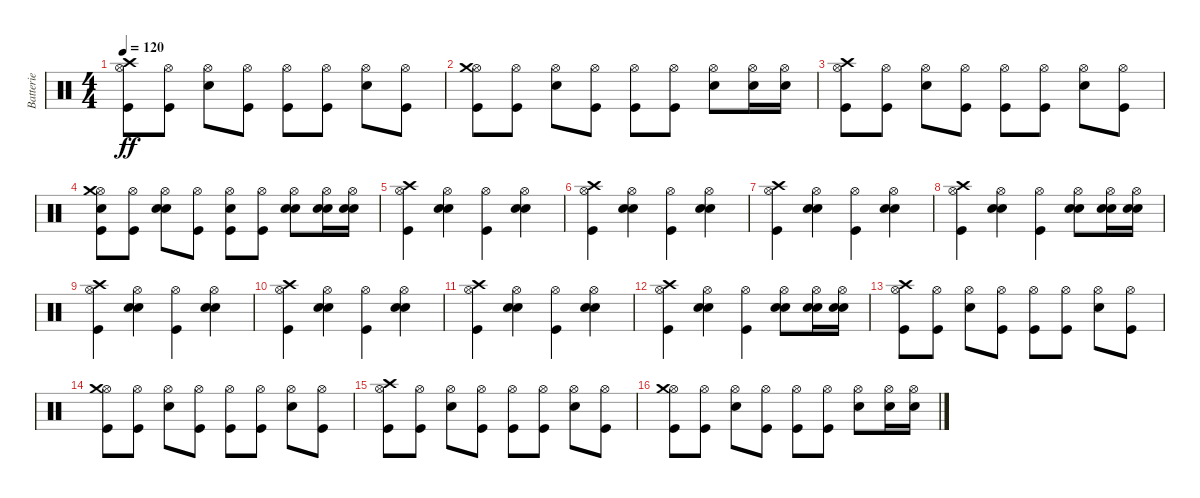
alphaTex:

\track ("Batterie" "Batterie") {instrument percussion}
\staff {score}
\articulation defaults
\ts (4 4)
\tempo 120
\clef neutral
\ks c
("Kick (hit)" "Hi-Hat (open)" "Crash high (hit)").8{dy ff} ("Kick (hit)" "Hi-Hat (open)").8 ("Electric Snare (hit)" "Hi-Hat (open)").8 ("Kick (hit)" "Hi-Hat (open)").8 ("Kick (hit)" "Hi-Hat (open)").8 ("Kick (hit)" "Hi-Hat (open)").8 ("Electric Snare (hit)" "Hi-Hat (open)").8 ("Kick (hit)" "Hi-Hat (open)").8 |
("Kick (hit)" "Hi-Hat (open)" "Crash medium (hit)").8 ("Kick (hit)" "Hi-Hat (open)").8 ("Electric Snare (hit)" "Hi-Hat (open)").8 ("Kick (hit)" "Hi-Hat (open)").8 ("Kick (hit)" "Hi-Hat (open)").8 ("Kick (hit)" "Hi-Hat (open)").8 ("Electric Snare (hit)" "Hi-Hat (open)").8 ("Electric Snare (hit)" "Hi-Hat (open)").16 ("Electric Snare (hit)" "Hi-Hat (open)").16 |
("Kick (hit)" "Hi-Hat (open)" "Crash high (hit)").8 ("Kick (hit)" "Hi-Hat (open)").8 ("Electric Snare (hit)" "Hi-Hat (open)").8 ("Kick (hit)" "Hi-Hat (open)").8 ("Kick (hit)" "Hi-Hat (open)").8 ("Kick (hit)" "Hi-Hat (open)").8 ("Electric Snare (hit)" "Hi-Hat (open)").8 ("Kick (hit)" "Hi-Hat (open)").8 |
("Kick (hit)" "Hi-Hat (open)" "Crash medium (hit)" "Electric Snare (hit)").8 ("Kick (hit)" "Hi-Hat (open)").8 ("Electric Snare (hit)" "Hi-Hat (open)" "Electric Snare (hit)").8 ("Kick (hit)" "Hi-Hat (open)").8 ("Kick (hit)" "Hi-Hat (open)" "Electric Snare (hit)").8 ("Kick (hit)" "Hi-Hat (open)").8 ("Electric Snare (hit)" "Hi-Hat (open)" "Electric Snare (hit)").8 ("Electric Snare (hit)" "Hi-Hat (open)" "Electric Snare (hit)").16 ("Electric Snare (hit)" "Hi-Hat (open)" "Electric Snare (hit)").16 |
("Kick (hit)" "Hi-Hat (open)" "Crash high (hit)").4 ("Electric Snare (hit)" "Electric Snare (hit)" "Hi-Hat (open)").4 ("Kick (hit)" "Hi-Hat (open)").4 ("Electric Snare (hit)" "Electric Snare (hit)" "Hi-Hat (open)").4 |
("Kick (hit)" "Hi-Hat (open)" "Crash high (hit)").4 ("Electric Snare (hit)" "Electric Snare (hit)" "Hi-Hat (open)").4 ("Kick (hit)" "Hi-Hat (open)").4 ("Electric Snare (hit)" "Electric Snare (hit)" "Hi-Hat (open)").4 |
("Kick (hit)" "Hi-Hat (open)" "Crash high (hit)").4 ("Electric Snare (hit)" "Electric Snare (hit)" "Hi-Hat (open)").4 ("Kick (hit)" "Hi-Hat (open)").4 ("Electric Snare (hit)" "Electric Snare (hit)" "Hi-Hat (open)").4 |
("Kick (hit)" "Hi-Hat (open)" "Crash high (hit)").4 ("Electric Snare (hit)" "Electric Snare (hit)" "Hi-Hat (open)").4 ("Kick (hit)" "Hi-Hat (open)").4 ("Electric Snare (hit)" "Electric Snare (hit)" "Hi-Hat (open)").8 ("Electric Snare (hit)" "Electric Snare (hit)" "Hi-Hat (open)").16 ("Electric Snare (hit)" "Electric Snare (hit)" "Hi-Hat (open)").16 |
("Kick (hit)" "Hi-Hat (open)" "Crash high (hit)").4 ("Electric Snare (hit)" "Electric Snare (hit)" "Hi-Hat (open)").4 ("Kick (hit)" "Hi-Hat (open)").4 ("Electric Snare (hit)" "Electric Snare (hit)" "Hi-Hat (open)").4 |
("Kick (hit)" "Hi-Hat (open)" "Crash high (hit)").4 ("Electric Snare (hit)" "Electric Snare (hit)" "Hi-Hat (open)").4 ("Kick (hit)" "Hi-Hat (open)").4 ("Electric Snare (hit)" "Electric Snare (hit)" "Hi-Hat (open)").4 |
("Kick (hit)" "Hi-Hat (open)" "Crash high (hit)").4 ("Electric Snare (hit)" "Electric Snare (hit)" "Hi-Hat (open)").4 ("Kick (hit)" "Hi-Hat (open)").4 ("Electric Snare (hit)" "Electric Snare (hit)" "Hi-Hat (open)").4 |
("Kick (hit)" "Hi-Hat (open)" "Crash high (hit)").4 ("Electric Snare (hit)" "Electric Snare (hit)" "Hi-Hat (open)").4 ("Kick (hit)" "Hi-Hat (open)").4 ("Electric Snare (hit)" "Electric Snare (hit)" "Hi-Hat (open)").8 ("Electric Snare (hit)" "Electric Snare (hit)" "Hi-Hat (open)").16 ("Electric Snare (hit)" "Electric Snare (hit)" "Hi-Hat (open)").16 |
("Kick (hit)" "Hi-Hat (open)" "Crash high (hit)").8 ("Kick (hit)" "Hi-Hat (open)").8 ("Electric Snare (hit)" "Hi-Hat (open)").8 ("Kick (hit)" "Hi-Hat (open)").8 ("Kick (hit)" "Hi-Hat (open)").8 ("Kick (hit)" "Hi-Hat (open)").8 ("Electric Snare (hit)" "Hi-Hat (open)").8 ("Kick (hit)" "Hi-Hat (open)").8 |
("Kick (hit)" "Hi-Hat (open)" "Crash medium (hit)").8 ("Kick (hit)" "Hi-Hat (open)").8 ("Electric Snare (hit)" "Hi-Hat (open)").8 ("Kick (hit)" "Hi-Hat (open)").8 ("Kick (hit)" "Hi-Hat (open)").8 ("Kick (hit)" "Hi-Hat (open)").8 ("Electric Snare (hit)" "Hi-Hat (open)").8 ("Kick (hit)" "Hi-Hat (open)").8 |
("Kick (hit)" "Hi-Hat (open)" "Crash high (hit)").8 ("Kick (hit)" "Hi-Hat (open)").8 ("Electric Snare (hit)" "Hi-Hat (open)").8 ("Kick (hit)" "Hi-Hat (open)").8 ("Kick (hit)" "Hi-Hat (open)").8 ("Kick (hit)" "Hi-Hat (open)").8 ("Electric Snare (hit)" "Hi-Hat (open)").8 ("Kick (hit)" "Hi-Hat (open)").8 |
("Kick (hit)" "Hi-Hat (open)" "Crash medium (hit)").8 ("Kick (hit)" "Hi-Hat (open)").8 ("Electric Snare (hit)" "Hi-Hat (open)").8 ("Kick (hit)" "Hi-Hat (open)").8 ("Kick (hit)" "Hi-Hat (open)").8 ("Kick (hit)" "Hi-Hat (open)").8 ("Electric Snare (hit)" "Hi-Hat (open)").8 ("Electric Snare (hit)" "Hi-Hat (open)").16 ("Electric Snare (hit)" "Hi-Hat (open)").16
